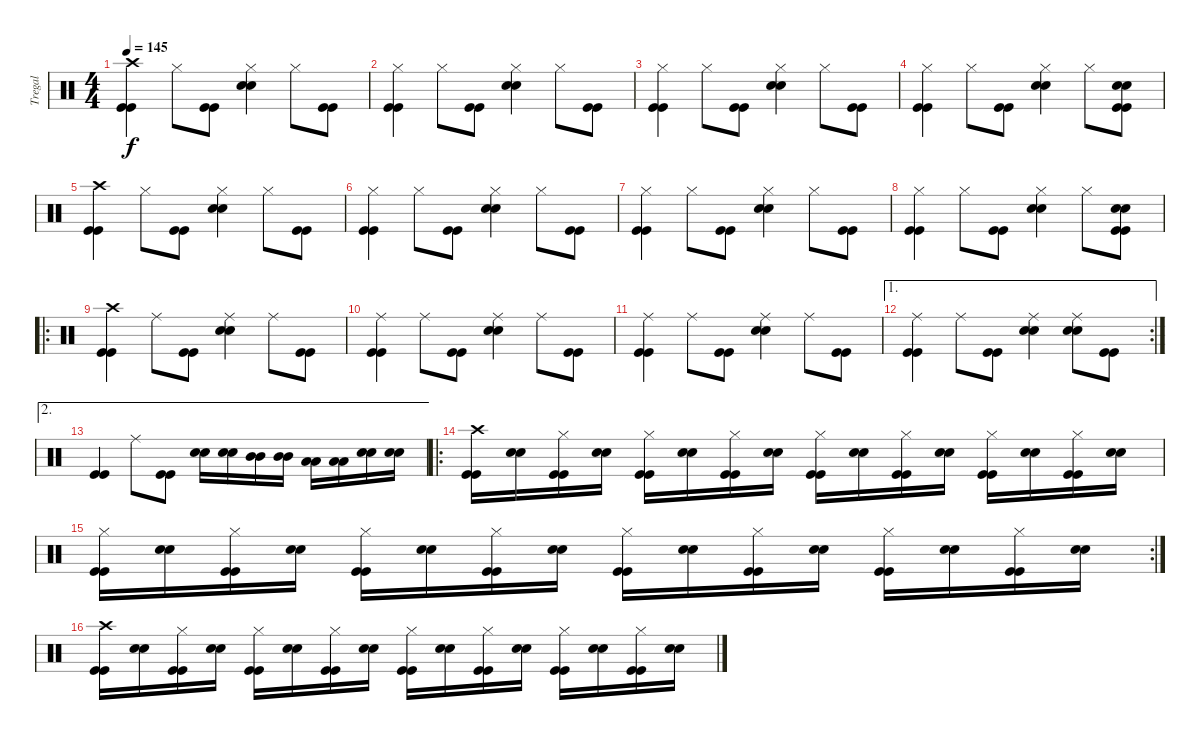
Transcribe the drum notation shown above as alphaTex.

\track ("Tregal" "Tregal") {instrument percussion}
\staff {score}
\articulation defaults
\ts (4 4)
\tempo 145
\clef neutral
\ks c
("Crash high (hit)" "Kick (hit)" "Kick (hit)").4{dy f} "Hi-Hat (closed)".8 ("Kick (hit)" "Kick (hit)").8 ("Hi-Hat (closed)" "Snare (hit) 2" "Snare (hit) 2").4 "Hi-Hat (closed)".8 ("Kick (hit)" "Kick (hit)").8 |
("Kick (hit)" "Kick (hit)" "Hi-Hat (closed)").4 "Hi-Hat (closed)".8 ("Kick (hit)" "Kick (hit)").8 ("Hi-Hat (closed)" "Snare (hit) 2" "Snare (hit) 2").4 "Hi-Hat (closed)".8 ("Kick (hit)" "Kick (hit)").8 |
("Kick (hit)" "Kick (hit)" "Hi-Hat (closed)").4 "Hi-Hat (closed)".8 ("Kick (hit)" "Kick (hit)").8 ("Hi-Hat (closed)" "Snare (hit) 2" "Snare (hit) 2").4 "Hi-Hat (closed)".8 ("Kick (hit)" "Kick (hit)").8 |
("Kick (hit)" "Kick (hit)" "Hi-Hat (closed)").4 "Hi-Hat (closed)".8 ("Kick (hit)" "Kick (hit)").8 ("Hi-Hat (closed)" "Snare (hit) 2" "Snare (hit) 2").4 "Hi-Hat (closed)".8 ("Kick (hit)" "Kick (hit)" "Snare (hit) 2" "Snare (hit) 2").8 |
("Crash high (hit)" "Kick (hit)" "Kick (hit)").4 "Hi-Hat (closed)".8 ("Kick (hit)" "Kick (hit)").8 ("Hi-Hat (closed)" "Snare (hit) 2" "Snare (hit) 2").4 "Hi-Hat (closed)".8 ("Kick (hit)" "Kick (hit)").8 |
("Kick (hit)" "Kick (hit)" "Hi-Hat (closed)").4 "Hi-Hat (closed)".8 ("Kick (hit)" "Kick (hit)").8 ("Hi-Hat (closed)" "Snare (hit) 2" "Snare (hit) 2").4 "Hi-Hat (closed)".8 ("Kick (hit)" "Kick (hit)").8 |
("Kick (hit)" "Kick (hit)" "Hi-Hat (closed)").4 "Hi-Hat (closed)".8 ("Kick (hit)" "Kick (hit)").8 ("Hi-Hat (closed)" "Snare (hit) 2" "Snare (hit) 2").4 "Hi-Hat (closed)".8 ("Kick (hit)" "Kick (hit)").8 |
("Kick (hit)" "Kick (hit)" "Hi-Hat (closed)").4 "Hi-Hat (closed)".8 ("Kick (hit)" "Kick (hit)").8 ("Hi-Hat (closed)" "Snare (hit) 2" "Snare (hit) 2").4 "Hi-Hat (closed)".8 ("Kick (hit)" "Kick (hit)" "Snare (hit) 2" "Snare (hit) 2").8 |
\ro
("Crash high (hit)" "Kick (hit)" "Kick (hit)").4 "Ride (middle)".8 ("Kick (hit)" "Kick (hit)").8 ("Ride (middle)" "Snare (hit) 2" "Snare (hit) 2").4 "Ride (middle)".8 ("Kick (hit)" "Kick (hit)").8 |
("Kick (hit)" "Kick (hit)" "Ride (middle)").4 "Ride (middle)".8 ("Kick (hit)" "Kick (hit)").8 ("Ride (middle)" "Snare (hit) 2" "Snare (hit) 2").4 "Ride (middle)".8 ("Kick (hit)" "Kick (hit)").8 |
("Kick (hit)" "Kick (hit)" "Ride (middle)").4 "Ride (middle)".8 ("Kick (hit)" "Kick (hit)").8 ("Ride (middle)" "Snare (hit) 2" "Snare (hit) 2").4 "Ride (middle)".8 ("Kick (hit)" "Kick (hit)").8 |
\ae 1
\rc 2
("Kick (hit)" "Kick (hit)" "Ride (middle)").4 "Ride (middle)".8 ("Kick (hit)" "Kick (hit)").8 ("Ride (middle)" "Snare (hit) 2" "Snare (hit) 2").4 ("Ride (middle)" "Snare (hit) 2" "Snare (hit) 2").8 ("Kick (hit)" "Kick (hit)").8 |
\ae 2
("Kick (hit)" "Kick (hit)").4 "Ride (middle)".8 ("Kick (hit)" "Kick (hit)").8 ("Snare (hit) 2" "Snare (hit) 2").16 ("Snare (hit) 2" "Snare (hit) 2").16 ("Mid Tom (hit)" "Mid Tom (hit)").16 ("Mid Tom (hit)" "Mid Tom (hit)").16 ("Low Tom (hit)" "Low Tom (hit)").16 ("Low Tom (hit)" "Low Tom (hit)").16 ("Snare (hit) 2" "Snare (hit) 2").16 ("Snare (hit) 2" "Snare (hit) 2").16 |
\ro
("Kick (hit)" "Kick (hit)" "Crash high (hit)").16 ("Snare (hit) 2" "Snare (hit) 2").16 ("Kick (hit)" "Kick (hit)" "Hi-Hat (closed)").16 ("Snare (hit) 2" "Snare (hit) 2").16 ("Kick (hit)" "Kick (hit)" "Hi-Hat (closed)").16 ("Snare (hit) 2" "Snare (hit) 2").16 ("Kick (hit)" "Kick (hit)" "Hi-Hat (closed)").16 ("Snare (hit) 2" "Snare (hit) 2").16 ("Kick (hit)" "Kick (hit)" "Hi-Hat (closed)").16 ("Snare (hit) 2" "Snare (hit) 2").16 ("Kick (hit)" "Kick (hit)" "Hi-Hat (closed)").16 ("Snare (hit) 2" "Snare (hit) 2").16 ("Kick (hit)" "Kick (hit)" "Hi-Hat (closed)").16 ("Snare (hit) 2" "Snare (hit) 2").16 ("Kick (hit)" "Kick (hit)" "Hi-Hat (closed)").16 ("Snare (hit) 2" "Snare (hit) 2").16 |
\rc 2
("Kick (hit)" "Kick (hit)" "Hi-Hat (closed)").16 ("Snare (hit) 2" "Snare (hit) 2").16 ("Kick (hit)" "Kick (hit)" "Hi-Hat (closed)").16 ("Snare (hit) 2" "Snare (hit) 2").16 ("Kick (hit)" "Kick (hit)" "Hi-Hat (closed)").16 ("Snare (hit) 2" "Snare (hit) 2").16 ("Kick (hit)" "Kick (hit)" "Hi-Hat (closed)").16 ("Snare (hit) 2" "Snare (hit) 2").16 ("Kick (hit)" "Kick (hit)" "Hi-Hat (closed)").16 ("Snare (hit) 2" "Snare (hit) 2").16 ("Kick (hit)" "Kick (hit)" "Hi-Hat (closed)").16 ("Snare (hit) 2" "Snare (hit) 2").16 ("Kick (hit)" "Kick (hit)" "Hi-Hat (closed)").16 ("Snare (hit) 2" "Snare (hit) 2").16 ("Kick (hit)" "Kick (hit)" "Hi-Hat (closed)").16 ("Snare (hit) 2" "Snare (hit) 2").16 |
("Kick (hit)" "Kick (hit)" "Crash high (hit)").16 ("Snare (hit) 2" "Snare (hit) 2").16 ("Kick (hit)" "Kick (hit)" "Hi-Hat (closed)").16 ("Snare (hit) 2" "Snare (hit) 2").16 ("Kick (hit)" "Kick (hit)" "Hi-Hat (closed)").16 ("Snare (hit) 2" "Snare (hit) 2").16 ("Kick (hit)" "Kick (hit)" "Hi-Hat (closed)").16 ("Snare (hit) 2" "Snare (hit) 2").16 ("Kick (hit)" "Kick (hit)" "Hi-Hat (closed)").16 ("Snare (hit) 2" "Snare (hit) 2").16 ("Kick (hit)" "Kick (hit)" "Hi-Hat (closed)").16 ("Snare (hit) 2" "Snare (hit) 2").16 ("Kick (hit)" "Kick (hit)" "Hi-Hat (closed)").16 ("Snare (hit) 2" "Snare (hit) 2").16 ("Kick (hit)" "Kick (hit)" "Hi-Hat (closed)").16 ("Snare (hit) 2" "Snare (hit) 2").16
